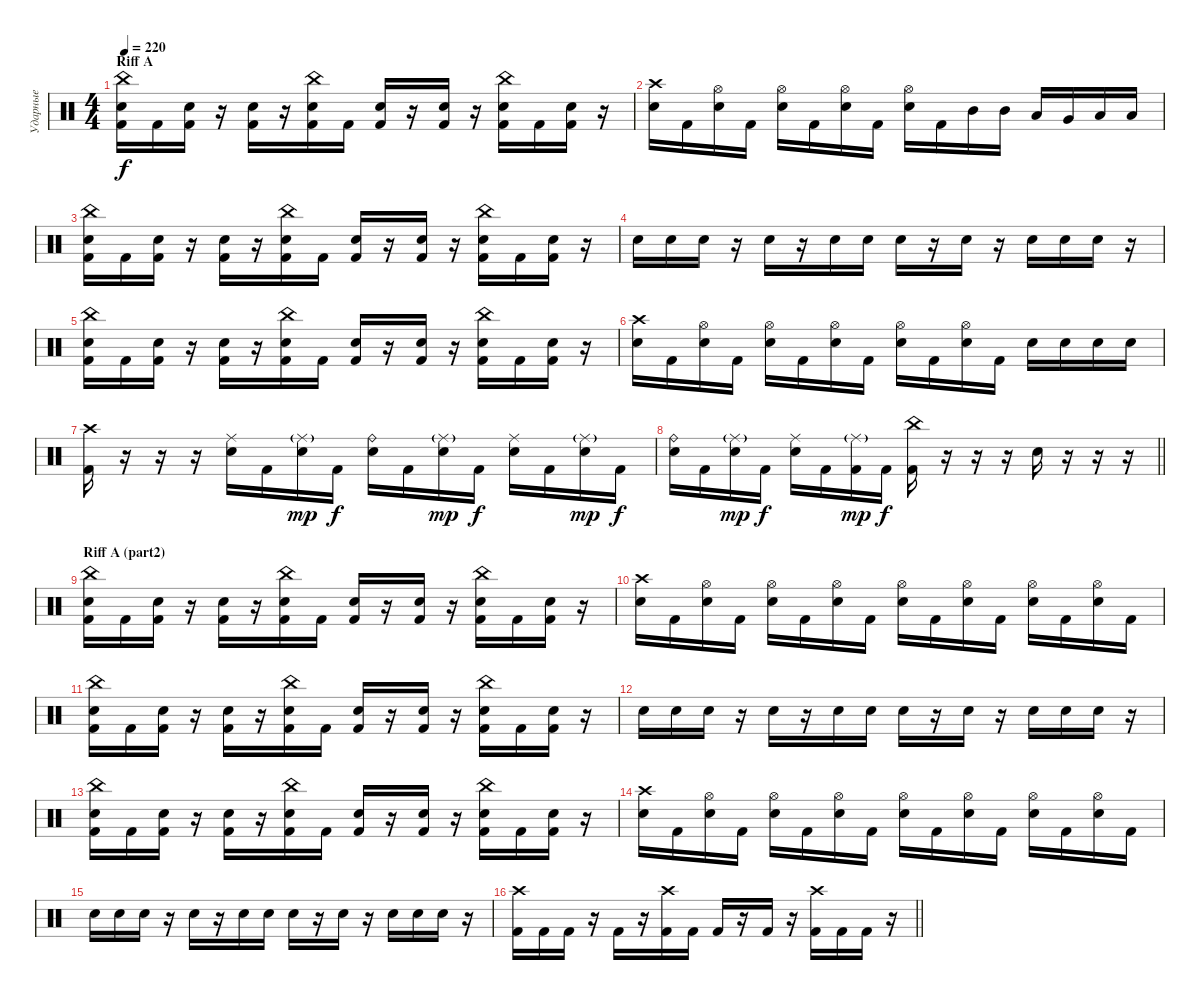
\track ("Ударные" "Ударные") {instrument percussion}
\staff {score}
\articulation defaults
\ts (4 4)
\section ("" "Riff A")
\tempo 220
\clef neutral
\ks c
("Electric Snare (hit)" "Kick (hit) 2" "China (hit)").16{dy f} "Kick (hit) 2".16 ("Electric Snare (hit)" "Kick (hit) 2").16 r.16 ("Electric Snare (hit)" "Kick (hit) 2").16 r.16 ("Electric Snare (hit)" "Kick (hit) 2" "China (hit)").16 "Kick (hit) 2".16 ("Electric Snare (hit)" "Kick (hit) 2").16 r.16 ("Electric Snare (hit)" "Kick (hit) 2").16 r.16 ("Electric Snare (hit)" "Kick (hit) 2" "China (hit)").16 "Kick (hit) 2".16 ("Electric Snare (hit)" "Kick (hit) 2").16 r.16 |
("Electric Snare (hit)" "Crash high (hit)").16 "Kick (hit) 2".16 ("Electric Snare (hit)" "Hi-Hat (open)").16 "Kick (hit) 2".16 ("Electric Snare (hit)" "Hi-Hat (open)").16 "Kick (hit) 2".16 ("Electric Snare (hit)" "Hi-Hat (open)").16 "Kick (hit) 2".16 ("Electric Snare (hit)" "Hi-Hat (open)").16 "Kick (hit) 2".16 "Mid Tom (hit)".16 "Mid Tom (hit)".16 "Low Tom (hit)".16 "Very Low Tom (hit)".16 "Low Floor Tom (hit)".16 "Low Floor Tom (hit)".16 |
("Electric Snare (hit)" "Kick (hit) 2" "China (hit)").16 "Kick (hit) 2".16 ("Electric Snare (hit)" "Kick (hit) 2").16 r.16 ("Electric Snare (hit)" "Kick (hit) 2").16 r.16 ("Electric Snare (hit)" "Kick (hit) 2" "China (hit)").16 "Kick (hit) 2".16 ("Electric Snare (hit)" "Kick (hit) 2").16 r.16 ("Electric Snare (hit)" "Kick (hit) 2").16 r.16 ("Electric Snare (hit)" "Kick (hit) 2" "China (hit)").16 "Kick (hit) 2".16 ("Electric Snare (hit)" "Kick (hit) 2").16 r.16 |
"Electric Snare (hit)".16 "Electric Snare (hit)".16 "Electric Snare (hit)".16 r.16 "Electric Snare (hit)".16 r.16 "Electric Snare (hit)".16 "Electric Snare (hit)".16 "Electric Snare (hit)".16 r.16 "Electric Snare (hit)".16 r.16 "Electric Snare (hit)".16 "Electric Snare (hit)".16 "Electric Snare (hit)".16 r.16 |
("Electric Snare (hit)" "Kick (hit) 2" "China (hit)").16 "Kick (hit) 2".16 ("Electric Snare (hit)" "Kick (hit) 2").16 r.16 ("Electric Snare (hit)" "Kick (hit) 2").16 r.16 ("Electric Snare (hit)" "Kick (hit) 2" "China (hit)").16 "Kick (hit) 2".16 ("Electric Snare (hit)" "Kick (hit) 2").16 r.16 ("Electric Snare (hit)" "Kick (hit) 2").16 r.16 ("Electric Snare (hit)" "Kick (hit) 2" "China (hit)").16 "Kick (hit) 2".16 ("Electric Snare (hit)" "Kick (hit) 2").16 r.16 |
("Electric Snare (hit)" "Crash high (hit)").16 "Kick (hit) 2".16 ("Electric Snare (hit)" "Hi-Hat (open)").16 "Kick (hit) 2".16 ("Electric Snare (hit)" "Hi-Hat (open)").16 "Kick (hit) 2".16 ("Electric Snare (hit)" "Hi-Hat (open)").16 "Kick (hit) 2".16 ("Electric Snare (hit)" "Hi-Hat (open)").16 "Kick (hit) 2".16 ("Electric Snare (hit)" "Hi-Hat (open)").16 "Kick (hit) 2".16 "Electric Snare (hit)".16 "Electric Snare (hit)".16 "Electric Snare (hit)".16 "Electric Snare (hit)".16 |
("Kick (hit) 2" "Crash high (hit)").16 r.16 r.16 r.16 ("Electric Snare (hit)" "Ride (middle)").16 "Kick (hit) 2".16 ("Electric Snare (hit)" "Ride (middle)"{g}).16{dy mp} "Kick (hit) 2".16{dy f} ("Electric Snare (hit)" "Ride (bell)").16 "Kick (hit) 2".16 ("Electric Snare (hit)" "Ride (middle)"{g}).16{dy mp} "Kick (hit) 2".16{dy f} ("Electric Snare (hit)" "Ride (middle)").16 "Kick (hit) 2".16 ("Electric Snare (hit)" "Ride (middle)"{g}).16{dy mp} "Kick (hit) 2".16{dy f} |
\barLineRight lightlight
("Electric Snare (hit)" "Ride (bell)").16 "Kick (hit) 2".16 ("Electric Snare (hit)" "Ride (middle)"{g}).16{dy mp} "Kick (hit) 2".16{dy f} ("Electric Snare (hit)" "Ride (middle)").16 "Kick (hit) 2".16 ("Kick (hit) 2" "Ride (middle)"{g}).16{dy mp} "Kick (hit) 2".16{dy f} ("Kick (hit) 2" "China (hit)").16 r.16 r.16 r.16 "Electric Snare (hit)".16 r.16 r.16 r.16 |
\section ("" "Riff A (part2)")
("Electric Snare (hit)" "Kick (hit) 2" "China (hit)").16 "Kick (hit) 2".16 ("Electric Snare (hit)" "Kick (hit) 2").16 r.16 ("Electric Snare (hit)" "Kick (hit) 2").16 r.16 ("Electric Snare (hit)" "Kick (hit) 2" "China (hit)").16 "Kick (hit) 2".16 ("Electric Snare (hit)" "Kick (hit) 2").16 r.16 ("Electric Snare (hit)" "Kick (hit) 2").16 r.16 ("Electric Snare (hit)" "Kick (hit) 2" "China (hit)").16 "Kick (hit) 2".16 ("Electric Snare (hit)" "Kick (hit) 2").16 r.16 |
("Electric Snare (hit)" "Crash high (hit)").16 "Kick (hit) 2".16 ("Electric Snare (hit)" "Hi-Hat (open)").16 "Kick (hit) 2".16 ("Electric Snare (hit)" "Hi-Hat (open)").16 "Kick (hit) 2".16 ("Electric Snare (hit)" "Hi-Hat (open)").16 "Kick (hit) 2".16 ("Electric Snare (hit)" "Hi-Hat (open)").16 "Kick (hit) 2".16 ("Electric Snare (hit)" "Hi-Hat (open)").16 "Kick (hit) 2".16 ("Electric Snare (hit)" "Hi-Hat (open)").16 "Kick (hit) 2".16 ("Electric Snare (hit)" "Hi-Hat (open)").16 "Kick (hit) 2".16 |
("Electric Snare (hit)" "Kick (hit) 2" "China (hit)").16 "Kick (hit) 2".16 ("Electric Snare (hit)" "Kick (hit) 2").16 r.16 ("Electric Snare (hit)" "Kick (hit) 2").16 r.16 ("Electric Snare (hit)" "Kick (hit) 2" "China (hit)").16 "Kick (hit) 2".16 ("Electric Snare (hit)" "Kick (hit) 2").16 r.16 ("Electric Snare (hit)" "Kick (hit) 2").16 r.16 ("Electric Snare (hit)" "Kick (hit) 2" "China (hit)").16 "Kick (hit) 2".16 ("Electric Snare (hit)" "Kick (hit) 2").16 r.16 |
"Electric Snare (hit)".16 "Electric Snare (hit)".16 "Electric Snare (hit)".16 r.16 "Electric Snare (hit)".16 r.16 "Electric Snare (hit)".16 "Electric Snare (hit)".16 "Electric Snare (hit)".16 r.16 "Electric Snare (hit)".16 r.16 "Electric Snare (hit)".16 "Electric Snare (hit)".16 "Electric Snare (hit)".16 r.16 |
("Electric Snare (hit)" "Kick (hit) 2" "China (hit)").16 "Kick (hit) 2".16 ("Electric Snare (hit)" "Kick (hit) 2").16 r.16 ("Electric Snare (hit)" "Kick (hit) 2").16 r.16 ("Electric Snare (hit)" "Kick (hit) 2" "China (hit)").16 "Kick (hit) 2".16 ("Electric Snare (hit)" "Kick (hit) 2").16 r.16 ("Electric Snare (hit)" "Kick (hit) 2").16 r.16 ("Electric Snare (hit)" "Kick (hit) 2" "China (hit)").16 "Kick (hit) 2".16 ("Electric Snare (hit)" "Kick (hit) 2").16 r.16 |
("Electric Snare (hit)" "Crash high (hit)").16 "Kick (hit) 2".16 ("Electric Snare (hit)" "Hi-Hat (open)").16 "Kick (hit) 2".16 ("Electric Snare (hit)" "Hi-Hat (open)").16 "Kick (hit) 2".16 ("Electric Snare (hit)" "Hi-Hat (open)").16 "Kick (hit) 2".16 ("Electric Snare (hit)" "Hi-Hat (open)").16 "Kick (hit) 2".16 ("Electric Snare (hit)" "Hi-Hat (open)").16 "Kick (hit) 2".16 ("Electric Snare (hit)" "Hi-Hat (open)").16 "Kick (hit) 2".16 ("Electric Snare (hit)" "Hi-Hat (open)").16 "Kick (hit) 2".16 |
"Electric Snare (hit)".16 "Electric Snare (hit)".16 "Electric Snare (hit)".16 r.16 "Electric Snare (hit)".16 r.16 "Electric Snare (hit)".16 "Electric Snare (hit)".16 "Electric Snare (hit)".16 r.16 "Electric Snare (hit)".16 r.16 "Electric Snare (hit)".16 "Electric Snare (hit)".16 "Electric Snare (hit)".16 r.16 |
\barLineRight lightlight
("Crash high (hit)" "Kick (hit) 2").16 "Kick (hit) 2".16 "Kick (hit) 2".16 r.16 "Kick (hit) 2".16 r.16 ("Crash high (hit)" "Kick (hit) 2").16 "Kick (hit) 2".16 "Kick (hit) 2".16 r.16 "Kick (hit) 2".16 r.16 ("Crash high (hit)" "Kick (hit) 2").16 "Kick (hit) 2".16 "Kick (hit) 2".16 r.16
